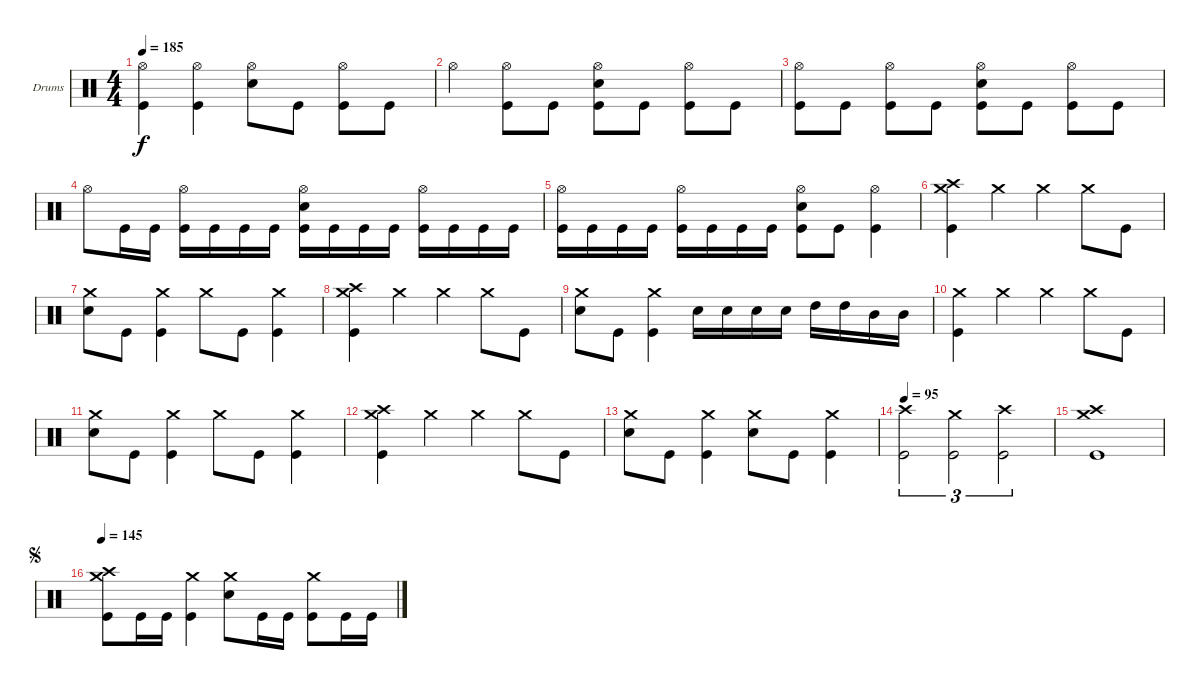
\bracketExtendMode groupsimilarinstruments
\firstSystemTrackNameOrientation horizontal
\otherSystemsTrackNameOrientation horizontal
\track ("Drumkit" "Drums") {instrument percussion}
\staff {score}
\articulation defaults
\ts (4 4)
\tempo 185
\clef neutral
\ks c
("Hi-Hat (open)" "Kick (hit)").4{dy f} ("Hi-Hat (open)" "Kick (hit)").4 ("Hi-Hat (open)" "Snare (hit) 2").8 "Kick (hit)".8 ("Hi-Hat (open)" "Kick (hit)").8 "Kick (hit)".8 |
"Hi-Hat (open)".4 ("Hi-Hat (open)" "Kick (hit)").8 "Kick (hit)".8 ("Hi-Hat (open)" "Snare (hit) 2" "Kick (hit)").8 "Kick (hit)".8 ("Hi-Hat (open)" "Kick (hit)").8 "Kick (hit)".8 |
("Hi-Hat (open)" "Kick (hit)").8 "Kick (hit)".8 ("Hi-Hat (open)" "Kick (hit)").8 "Kick (hit)".8 ("Hi-Hat (open)" "Snare (hit) 2" "Kick (hit)").8 "Kick (hit)".8 ("Hi-Hat (open)" "Kick (hit)").8 "Kick (hit)".8 |
"Hi-Hat (open)".8 "Kick (hit)".16 "Kick (hit)".16 ("Hi-Hat (open)" "Kick (hit)").16 "Kick (hit)".16 "Kick (hit)".16 "Kick (hit)".16 ("Hi-Hat (open)" "Snare (hit) 2" "Kick (hit)").16 "Kick (hit)".16 "Kick (hit)".16 "Kick (hit)".16 ("Hi-Hat (open)" "Kick (hit)").16 "Kick (hit)".16 "Kick (hit)".16 "Kick (hit)".16 |
("Hi-Hat (open)" "Kick (hit)").16 "Kick (hit)".16 "Kick (hit)".16 "Kick (hit)".16 ("Hi-Hat (open)" "Kick (hit)").16 "Kick (hit)".16 "Kick (hit)".16 "Kick (hit)".16 ("Hi-Hat (open)" "Snare (hit) 2" "Kick (hit)").8 "Kick (hit)".8 ("Hi-Hat (open)" "Kick (hit)").4 |
("Crash medium (hit)" "Crash high (hit)" "Kick (hit)").4 "Crash medium (hit)".4 "Crash medium (hit)".4 "Crash medium (hit)".8 "Kick (hit)".8 |
("Crash medium (hit)" "Snare (hit) 2").8 "Kick (hit)".8 ("Crash medium (hit)" "Kick (hit)").4 "Crash medium (hit)".8 "Kick (hit)".8 ("Crash medium (hit)" "Kick (hit)").4 |
("Crash medium (hit)" "Crash high (hit)" "Kick (hit)").4 "Crash medium (hit)".4 "Crash medium (hit)".4 "Crash medium (hit)".8 "Kick (hit)".8 |
("Crash medium (hit)" "Snare (hit) 2").8 "Kick (hit)".8 ("Crash medium (hit)" "Kick (hit)").4 "Snare (hit) 2".16 "Snare (hit) 2".16 "Snare (hit) 2".16 "Snare (hit) 2".16 "High Tom (hit)".16 "High Tom (hit)".16 "Mid Tom (hit)".16 "Mid Tom (hit)".16 |
("Crash medium (hit)" "Kick (hit)").4 "Crash medium (hit)".4 "Crash medium (hit)".4 "Crash medium (hit)".8 "Kick (hit)".8 |
("Crash medium (hit)" "Snare (hit) 2").8 "Kick (hit)".8 ("Crash medium (hit)" "Kick (hit)").4 "Crash medium (hit)".8 "Kick (hit)".8 ("Crash medium (hit)" "Kick (hit)").4 |
("Crash medium (hit)" "Crash high (hit)" "Kick (hit)").4 "Crash medium (hit)".4 "Crash medium (hit)".4 "Crash medium (hit)".8 "Kick (hit)".8 |
("Crash medium (hit)" "Snare (hit) 2").8 "Kick (hit)".8 ("Crash medium (hit)" "Kick (hit)").4 ("Crash medium (hit)" "Snare (hit) 2").8 "Kick (hit)".8 ("Crash medium (hit)" "Kick (hit)").4 |
\tempo 95
("Crash high (hit)" "Kick (hit)").2{tu (3 2)} ("Crash medium (hit)" "Kick (hit)").2{tu (3 2)} ("Crash high (hit)" "Kick (hit)").2{tu (3 2)} |
("Crash medium (hit)" "Crash high (hit)" "Kick (hit)").1 |
\jump segno
\tempo 145
("Crash medium (hit)" "Crash high (hit)" "Kick (hit)").8 "Kick (hit)".16 "Kick (hit)".16 ("Crash medium (hit)" "Kick (hit)").4 ("Crash medium (hit)" "Snare (hit) 2").8 "Kick (hit)".16 "Kick (hit)".16 ("Crash medium (hit)" "Kick (hit)").8 "Kick (hit)".16 "Kick (hit)".16
